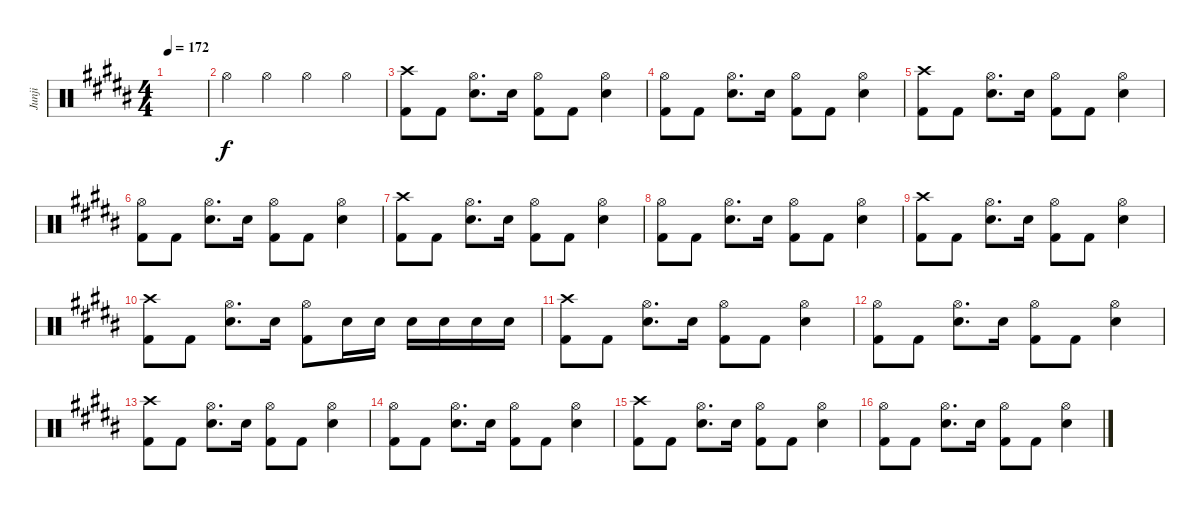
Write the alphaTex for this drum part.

\track ("Junji" "Junji") {instrument percussion}
\staff {score}
\articulation defaults
\ts (4 4)
\tempo 172
\clef neutral
\ks b
|
"Hi-Hat (open)".4 "Hi-Hat (open)".4 "Hi-Hat (open)".4 "Hi-Hat (open)".4 |
("Crash high (hit)" "Kick (hit) 2").8 "Kick (hit) 2".8 ("Hi-Hat (open)" "Snare (hit) 2").8{d} "Snare (hit) 2".16 ("Hi-Hat (open)" "Kick (hit) 2").8 "Kick (hit) 2".8 ("Hi-Hat (open)" "Snare (hit) 2").4 |
("Hi-Hat (open)" "Kick (hit) 2").8 "Kick (hit) 2".8 ("Hi-Hat (open)" "Snare (hit) 2").8{d} "Snare (hit) 2".16 ("Hi-Hat (open)" "Kick (hit) 2").8 "Kick (hit) 2".8 ("Hi-Hat (open)" "Snare (hit) 2").4 |
("Crash high (hit)" "Kick (hit) 2").8 "Kick (hit) 2".8 ("Hi-Hat (open)" "Snare (hit) 2").8{d} "Snare (hit) 2".16 ("Hi-Hat (open)" "Kick (hit) 2").8 "Kick (hit) 2".8 ("Hi-Hat (open)" "Snare (hit) 2").4 |
("Hi-Hat (open)" "Kick (hit) 2").8 "Kick (hit) 2".8 ("Hi-Hat (open)" "Snare (hit) 2").8{d} "Snare (hit) 2".16 ("Hi-Hat (open)" "Kick (hit) 2").8 "Kick (hit) 2".8 ("Hi-Hat (open)" "Snare (hit) 2").4 |
("Crash high (hit)" "Kick (hit) 2").8 "Kick (hit) 2".8 ("Hi-Hat (open)" "Snare (hit) 2").8{d} "Snare (hit) 2".16 ("Hi-Hat (open)" "Kick (hit) 2").8 "Kick (hit) 2".8 ("Hi-Hat (open)" "Snare (hit) 2").4 |
("Hi-Hat (open)" "Kick (hit) 2").8 "Kick (hit) 2".8 ("Hi-Hat (open)" "Snare (hit) 2").8{d} "Snare (hit) 2".16 ("Hi-Hat (open)" "Kick (hit) 2").8 "Kick (hit) 2".8 ("Hi-Hat (open)" "Snare (hit) 2").4 |
("Crash high (hit)" "Kick (hit) 2").8 "Kick (hit) 2".8 ("Hi-Hat (open)" "Snare (hit) 2").8{d} "Snare (hit) 2".16 ("Hi-Hat (open)" "Kick (hit) 2").8 "Kick (hit) 2".8 ("Hi-Hat (open)" "Snare (hit) 2").4 |
("Crash high (hit)" "Kick (hit) 2").8 "Kick (hit) 2".8 ("Hi-Hat (open)" "Snare (hit) 2").8{d} "Snare (hit) 2".16 ("Hi-Hat (open)" "Kick (hit) 2").8 "Snare (hit) 2".16 "Snare (hit) 2".16 "Snare (hit) 2".16 "Snare (hit) 2".16 "Snare (hit) 2".16 "Snare (hit) 2".16 |
("Crash high (hit)" "Kick (hit) 2").8 "Kick (hit) 2".8 ("Hi-Hat (open)" "Snare (hit) 2").8{d} "Snare (hit) 2".16 ("Hi-Hat (open)" "Kick (hit) 2").8 "Kick (hit) 2".8 ("Hi-Hat (open)" "Snare (hit) 2").4 |
("Hi-Hat (open)" "Kick (hit) 2").8 "Kick (hit) 2".8 ("Hi-Hat (open)" "Snare (hit) 2").8{d} "Snare (hit) 2".16 ("Hi-Hat (open)" "Kick (hit) 2").8 "Kick (hit) 2".8 ("Hi-Hat (open)" "Snare (hit) 2").4 |
("Crash high (hit)" "Kick (hit) 2").8 "Kick (hit) 2".8 ("Hi-Hat (open)" "Snare (hit) 2").8{d} "Snare (hit) 2".16 ("Hi-Hat (open)" "Kick (hit) 2").8 "Kick (hit) 2".8 ("Hi-Hat (open)" "Snare (hit) 2").4 |
("Hi-Hat (open)" "Kick (hit) 2").8 "Kick (hit) 2".8 ("Hi-Hat (open)" "Snare (hit) 2").8{d} "Snare (hit) 2".16 ("Hi-Hat (open)" "Kick (hit) 2").8 "Kick (hit) 2".8 ("Hi-Hat (open)" "Snare (hit) 2").4 |
("Crash high (hit)" "Kick (hit) 2").8 "Kick (hit) 2".8 ("Hi-Hat (open)" "Snare (hit) 2").8{d} "Snare (hit) 2".16 ("Hi-Hat (open)" "Kick (hit) 2").8 "Kick (hit) 2".8 ("Hi-Hat (open)" "Snare (hit) 2").4 |
("Hi-Hat (open)" "Kick (hit) 2").8 "Kick (hit) 2".8 ("Hi-Hat (open)" "Snare (hit) 2").8{d} "Snare (hit) 2".16 ("Hi-Hat (open)" "Kick (hit) 2").8 "Kick (hit) 2".8 ("Hi-Hat (open)" "Snare (hit) 2").4
